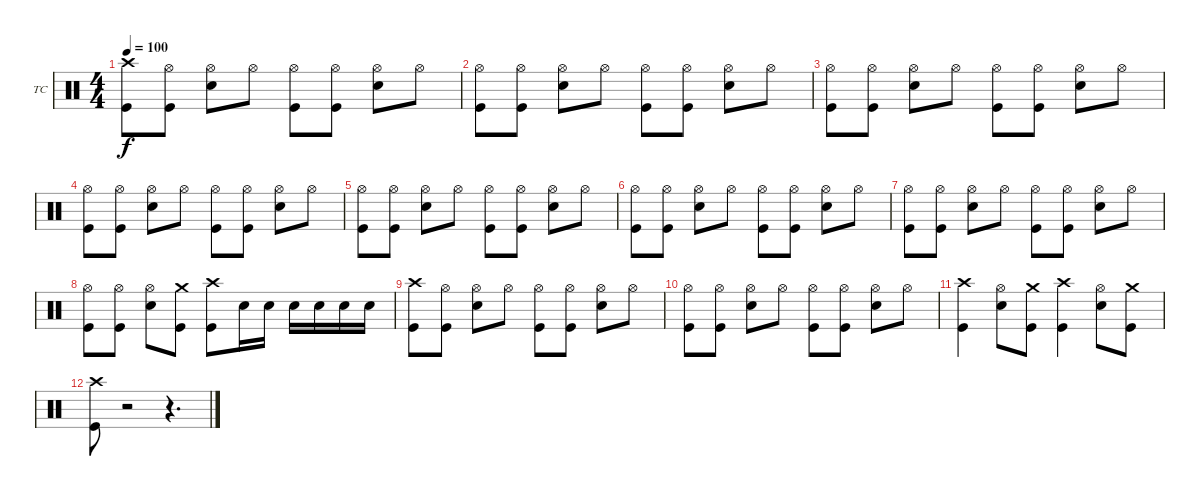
\defaultSystemsLayout 4
\bracketExtendMode groupsimilarinstruments
\firstSystemTrackNameOrientation horizontal
\otherSystemsTrackNameOrientation horizontal
\track ("Drums - Tre Cool" "TC") {instrument percussion}
\staff {score}
\articulation defaults
\ts (4 4)
\tempo 100
\clef neutral
\ks c
("Crash high (hit)" "Kick (hit)").8{dy f} ("Hi-Hat (open)" "Kick (hit)").8 ("Hi-Hat (open)" "Snare (hit) 2").8 "Hi-Hat (open)".8 ("Hi-Hat (open)" "Kick (hit)").8 ("Hi-Hat (open)" "Kick (hit)").8 ("Hi-Hat (open)" "Snare (hit) 2").8 "Hi-Hat (open)".8 |
("Hi-Hat (open)" "Kick (hit)").8 ("Hi-Hat (open)" "Kick (hit)").8 ("Hi-Hat (open)" "Snare (hit) 2").8 "Hi-Hat (open)".8 ("Hi-Hat (open)" "Kick (hit)").8 ("Hi-Hat (open)" "Kick (hit)").8 ("Hi-Hat (open)" "Snare (hit) 2").8 "Hi-Hat (open)".8 |
("Hi-Hat (open)" "Kick (hit)").8 ("Hi-Hat (open)" "Kick (hit)").8 ("Hi-Hat (open)" "Snare (hit) 2").8 "Hi-Hat (open)".8 ("Hi-Hat (open)" "Kick (hit)").8 ("Hi-Hat (open)" "Kick (hit)").8 ("Hi-Hat (open)" "Snare (hit) 2").8 "Hi-Hat (open)".8 |
("Hi-Hat (open)" "Kick (hit)").8 ("Hi-Hat (open)" "Kick (hit)").8 ("Hi-Hat (open)" "Snare (hit) 2").8 "Hi-Hat (open)".8 ("Hi-Hat (open)" "Kick (hit)").8 ("Hi-Hat (open)" "Kick (hit)").8 ("Hi-Hat (open)" "Snare (hit) 2").8 "Hi-Hat (open)".8 |
("Hi-Hat (open)" "Kick (hit)").8 ("Hi-Hat (open)" "Kick (hit)").8 ("Hi-Hat (open)" "Snare (hit) 2").8 "Hi-Hat (open)".8 ("Hi-Hat (open)" "Kick (hit)").8 ("Hi-Hat (open)" "Kick (hit)").8 ("Hi-Hat (open)" "Snare (hit) 2").8 "Hi-Hat (open)".8 |
("Hi-Hat (open)" "Kick (hit)").8 ("Hi-Hat (open)" "Kick (hit)").8 ("Hi-Hat (open)" "Snare (hit) 2").8 "Hi-Hat (open)".8 ("Hi-Hat (open)" "Kick (hit)").8 ("Hi-Hat (open)" "Kick (hit)").8 ("Hi-Hat (open)" "Snare (hit) 2").8 "Hi-Hat (open)".8 |
("Hi-Hat (open)" "Kick (hit)").8 ("Hi-Hat (open)" "Kick (hit)").8 ("Hi-Hat (open)" "Snare (hit) 2").8 "Hi-Hat (open)".8 ("Hi-Hat (open)" "Kick (hit)").8 ("Hi-Hat (open)" "Kick (hit)").8 ("Hi-Hat (open)" "Snare (hit) 2").8 "Hi-Hat (open)".8 |
("Hi-Hat (open)" "Kick (hit)").8 ("Hi-Hat (open)" "Kick (hit)").8 ("Hi-Hat (open)" "Snare (hit) 2").8 ("Crash medium (hit)" "Kick (hit)").8 ("Crash high (hit)" "Kick (hit)").8 "Snare (hit) 2".16 "Snare (hit) 2".16 "Snare (hit) 2".16 "Snare (hit) 2".16 "Snare (hit) 2".16 "Snare (hit) 2".16 |
("Crash high (hit)" "Kick (hit)").8 ("Hi-Hat (open)" "Kick (hit)").8 ("Hi-Hat (open)" "Snare (hit) 2").8 "Hi-Hat (open)".8 ("Hi-Hat (open)" "Kick (hit)").8 ("Hi-Hat (open)" "Kick (hit)").8 ("Hi-Hat (open)" "Snare (hit) 2").8 "Hi-Hat (open)".8 |
("Hi-Hat (open)" "Kick (hit)").8 ("Hi-Hat (open)" "Kick (hit)").8 ("Hi-Hat (open)" "Snare (hit) 2").8 "Hi-Hat (open)".8 ("Hi-Hat (open)" "Kick (hit)").8 ("Hi-Hat (open)" "Kick (hit)").8 ("Hi-Hat (open)" "Snare (hit) 2").8 "Hi-Hat (open)".8 |
("Crash high (hit)" "Kick (hit)").4 ("Hi-Hat (open)" "Snare (hit) 2").8 ("Crash medium (hit)" "Kick (hit)").8 ("Crash high (hit)" "Kick (hit)").4 ("Hi-Hat (open)" "Snare (hit) 2").8 ("Crash medium (hit)" "Kick (hit)").8 |
("Crash high (hit)" "Kick (hit)").8 r.2 r.4{d}
